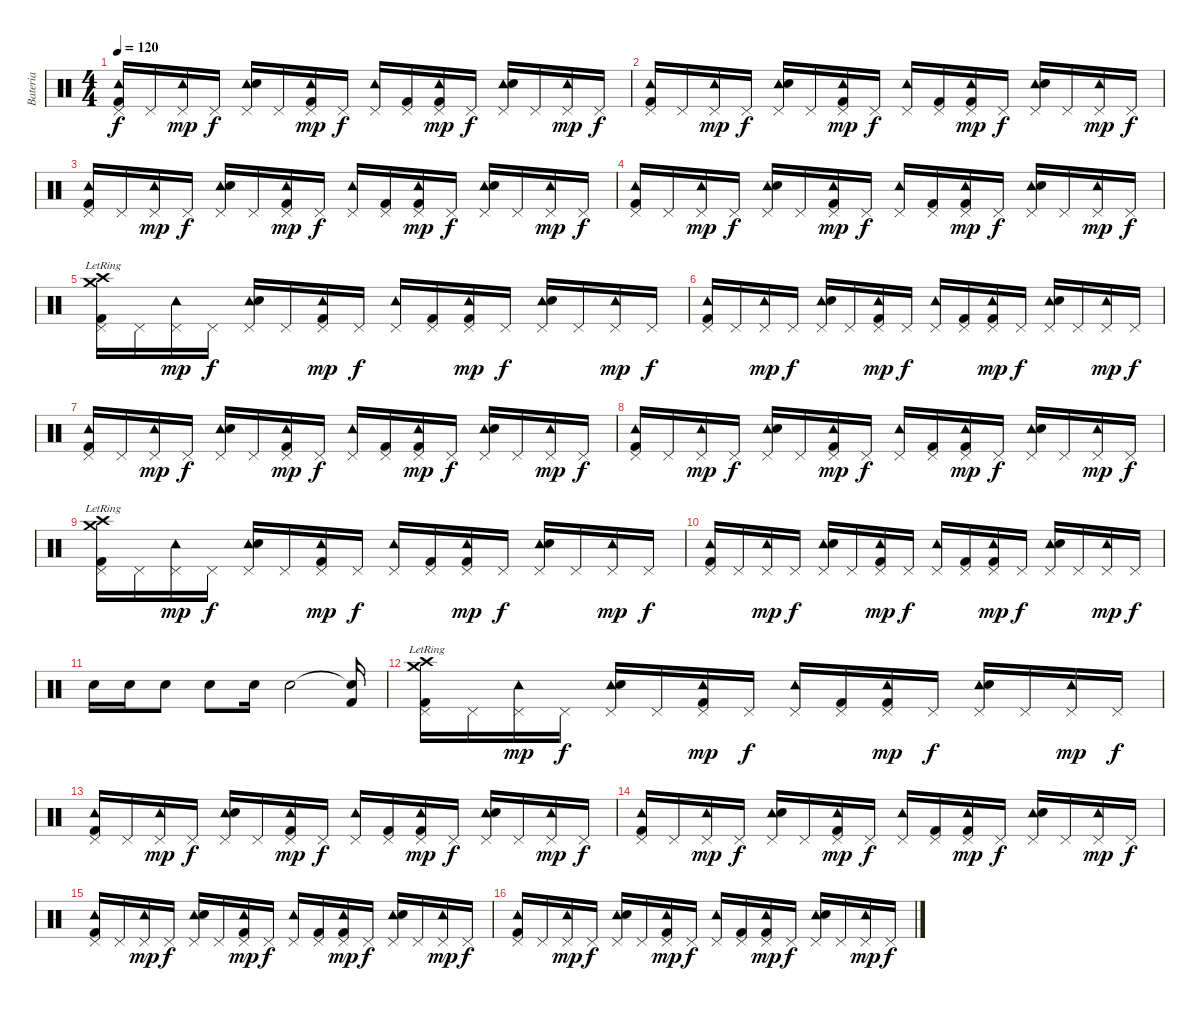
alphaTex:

\track ("Bateria" "Bateria") {instrument percussion}
\staff {score}
\articulation defaults
\ts (4 4)
\tempo 120
\clef neutral
\ks c
("Tambourine (hit)" "Pedal Hi-Hat (hit)" "Kick (hit) 2").16{dy f} "Pedal Hi-Hat (hit)".16 ("Tambourine (hit)" "Pedal Hi-Hat (hit)").16{dy mp} "Pedal Hi-Hat (hit)".16{dy f} ("Tambourine (hit)" "Pedal Hi-Hat (hit)" "Electric Snare (hit)").16 "Pedal Hi-Hat (hit)".16 ("Tambourine (hit)" "Pedal Hi-Hat (hit)" "Kick (hit) 2").16{dy mp} "Pedal Hi-Hat (hit)".16{dy f} ("Tambourine (hit)" "Pedal Hi-Hat (hit)").16 ("Pedal Hi-Hat (hit)" "Kick (hit) 2").16 ("Tambourine (hit)" "Pedal Hi-Hat (hit)" "Kick (hit) 2").16{dy mp} "Pedal Hi-Hat (hit)".16{dy f} ("Tambourine (hit)" "Pedal Hi-Hat (hit)" "Electric Snare (hit)").16 "Pedal Hi-Hat (hit)".16 ("Tambourine (hit)" "Pedal Hi-Hat (hit)").16{dy mp} "Pedal Hi-Hat (hit)".16{dy f} |
("Tambourine (hit)" "Pedal Hi-Hat (hit)" "Kick (hit) 2").16 "Pedal Hi-Hat (hit)".16 ("Tambourine (hit)" "Pedal Hi-Hat (hit)").16{dy mp} "Pedal Hi-Hat (hit)".16{dy f} ("Tambourine (hit)" "Pedal Hi-Hat (hit)" "Electric Snare (hit)").16 "Pedal Hi-Hat (hit)".16 ("Tambourine (hit)" "Pedal Hi-Hat (hit)" "Kick (hit) 2").16{dy mp} "Pedal Hi-Hat (hit)".16{dy f} ("Tambourine (hit)" "Pedal Hi-Hat (hit)").16 ("Pedal Hi-Hat (hit)" "Kick (hit) 2").16 ("Tambourine (hit)" "Pedal Hi-Hat (hit)" "Kick (hit) 2").16{dy mp} "Pedal Hi-Hat (hit)".16{dy f} ("Tambourine (hit)" "Pedal Hi-Hat (hit)" "Electric Snare (hit)").16 "Pedal Hi-Hat (hit)".16 ("Tambourine (hit)" "Pedal Hi-Hat (hit)").16{dy mp} "Pedal Hi-Hat (hit)".16{dy f} |
("Tambourine (hit)" "Pedal Hi-Hat (hit)" "Kick (hit) 2").16 "Pedal Hi-Hat (hit)".16 ("Tambourine (hit)" "Pedal Hi-Hat (hit)").16{dy mp} "Pedal Hi-Hat (hit)".16{dy f} ("Tambourine (hit)" "Pedal Hi-Hat (hit)" "Electric Snare (hit)").16 "Pedal Hi-Hat (hit)".16 ("Tambourine (hit)" "Pedal Hi-Hat (hit)" "Kick (hit) 2").16{dy mp} "Pedal Hi-Hat (hit)".16{dy f} ("Tambourine (hit)" "Pedal Hi-Hat (hit)").16 ("Pedal Hi-Hat (hit)" "Kick (hit) 2").16 ("Tambourine (hit)" "Pedal Hi-Hat (hit)" "Kick (hit) 2").16{dy mp} "Pedal Hi-Hat (hit)".16{dy f} ("Tambourine (hit)" "Pedal Hi-Hat (hit)" "Electric Snare (hit)").16 "Pedal Hi-Hat (hit)".16 ("Tambourine (hit)" "Pedal Hi-Hat (hit)").16{dy mp} "Pedal Hi-Hat (hit)".16{dy f} |
("Tambourine (hit)" "Pedal Hi-Hat (hit)" "Kick (hit) 2").16 "Pedal Hi-Hat (hit)".16 ("Tambourine (hit)" "Pedal Hi-Hat (hit)").16{dy mp} "Pedal Hi-Hat (hit)".16{dy f} ("Tambourine (hit)" "Pedal Hi-Hat (hit)" "Electric Snare (hit)").16 "Pedal Hi-Hat (hit)".16 ("Tambourine (hit)" "Pedal Hi-Hat (hit)" "Kick (hit) 2").16{dy mp} "Pedal Hi-Hat (hit)".16{dy f} ("Tambourine (hit)" "Pedal Hi-Hat (hit)").16 ("Pedal Hi-Hat (hit)" "Kick (hit) 2").16 ("Tambourine (hit)" "Pedal Hi-Hat (hit)" "Kick (hit) 2").16{dy mp} "Pedal Hi-Hat (hit)".16{dy f} ("Tambourine (hit)" "Pedal Hi-Hat (hit)" "Electric Snare (hit)").16 "Pedal Hi-Hat (hit)".16 ("Tambourine (hit)" "Pedal Hi-Hat (hit)").16{dy mp} "Pedal Hi-Hat (hit)".16{dy f} |
("Crash medium (hit)"{lr} "Crash high (hit)"{lr} "Pedal Hi-Hat (hit)" "Kick (hit) 2").16 "Pedal Hi-Hat (hit)".16 ("Tambourine (hit)" "Pedal Hi-Hat (hit)").16{dy mp} "Pedal Hi-Hat (hit)".16{dy f} ("Tambourine (hit)" "Pedal Hi-Hat (hit)" "Electric Snare (hit)").16 "Pedal Hi-Hat (hit)".16 ("Tambourine (hit)" "Pedal Hi-Hat (hit)" "Kick (hit) 2").16{dy mp} "Pedal Hi-Hat (hit)".16{dy f} ("Tambourine (hit)" "Pedal Hi-Hat (hit)").16 ("Pedal Hi-Hat (hit)" "Kick (hit) 2").16 ("Tambourine (hit)" "Pedal Hi-Hat (hit)" "Kick (hit) 2").16{dy mp} "Pedal Hi-Hat (hit)".16{dy f} ("Tambourine (hit)" "Pedal Hi-Hat (hit)" "Electric Snare (hit)").16 "Pedal Hi-Hat (hit)".16 ("Tambourine (hit)" "Pedal Hi-Hat (hit)").16{dy mp} "Pedal Hi-Hat (hit)".16{dy f} |
("Tambourine (hit)" "Pedal Hi-Hat (hit)" "Kick (hit) 2").16 "Pedal Hi-Hat (hit)".16 ("Tambourine (hit)" "Pedal Hi-Hat (hit)").16{dy mp} "Pedal Hi-Hat (hit)".16{dy f} ("Tambourine (hit)" "Pedal Hi-Hat (hit)" "Electric Snare (hit)").16 "Pedal Hi-Hat (hit)".16 ("Tambourine (hit)" "Pedal Hi-Hat (hit)" "Kick (hit) 2").16{dy mp} "Pedal Hi-Hat (hit)".16{dy f} ("Tambourine (hit)" "Pedal Hi-Hat (hit)").16 ("Pedal Hi-Hat (hit)" "Kick (hit) 2").16 ("Tambourine (hit)" "Pedal Hi-Hat (hit)" "Kick (hit) 2").16{dy mp} "Pedal Hi-Hat (hit)".16{dy f} ("Tambourine (hit)" "Pedal Hi-Hat (hit)" "Electric Snare (hit)").16 "Pedal Hi-Hat (hit)".16 ("Tambourine (hit)" "Pedal Hi-Hat (hit)").16{dy mp} "Pedal Hi-Hat (hit)".16{dy f} |
("Tambourine (hit)" "Pedal Hi-Hat (hit)" "Kick (hit) 2").16 "Pedal Hi-Hat (hit)".16 ("Tambourine (hit)" "Pedal Hi-Hat (hit)").16{dy mp} "Pedal Hi-Hat (hit)".16{dy f} ("Tambourine (hit)" "Pedal Hi-Hat (hit)" "Electric Snare (hit)").16 "Pedal Hi-Hat (hit)".16 ("Tambourine (hit)" "Pedal Hi-Hat (hit)" "Kick (hit) 2").16{dy mp} "Pedal Hi-Hat (hit)".16{dy f} ("Tambourine (hit)" "Pedal Hi-Hat (hit)").16 ("Pedal Hi-Hat (hit)" "Kick (hit) 2").16 ("Tambourine (hit)" "Pedal Hi-Hat (hit)" "Kick (hit) 2").16{dy mp} "Pedal Hi-Hat (hit)".16{dy f} ("Tambourine (hit)" "Pedal Hi-Hat (hit)" "Electric Snare (hit)").16 "Pedal Hi-Hat (hit)".16 ("Tambourine (hit)" "Pedal Hi-Hat (hit)").16{dy mp} "Pedal Hi-Hat (hit)".16{dy f} |
("Tambourine (hit)" "Pedal Hi-Hat (hit)" "Kick (hit) 2").16 "Pedal Hi-Hat (hit)".16 ("Tambourine (hit)" "Pedal Hi-Hat (hit)").16{dy mp} "Pedal Hi-Hat (hit)".16{dy f} ("Tambourine (hit)" "Pedal Hi-Hat (hit)" "Electric Snare (hit)").16 "Pedal Hi-Hat (hit)".16 ("Tambourine (hit)" "Pedal Hi-Hat (hit)" "Kick (hit) 2").16{dy mp} "Pedal Hi-Hat (hit)".16{dy f} ("Tambourine (hit)" "Pedal Hi-Hat (hit)").16 ("Pedal Hi-Hat (hit)" "Kick (hit) 2").16 ("Tambourine (hit)" "Pedal Hi-Hat (hit)" "Kick (hit) 2").16{dy mp} "Pedal Hi-Hat (hit)".16{dy f} ("Tambourine (hit)" "Pedal Hi-Hat (hit)" "Electric Snare (hit)").16 "Pedal Hi-Hat (hit)".16 ("Tambourine (hit)" "Pedal Hi-Hat (hit)").16{dy mp} "Pedal Hi-Hat (hit)".16{dy f} |
("Crash medium (hit)"{lr} "Crash high (hit)"{lr} "Pedal Hi-Hat (hit)" "Kick (hit) 2").16 "Pedal Hi-Hat (hit)".16 ("Tambourine (hit)" "Pedal Hi-Hat (hit)").16{dy mp} "Pedal Hi-Hat (hit)".16{dy f} ("Tambourine (hit)" "Pedal Hi-Hat (hit)" "Electric Snare (hit)").16 "Pedal Hi-Hat (hit)".16 ("Tambourine (hit)" "Pedal Hi-Hat (hit)" "Kick (hit) 2").16{dy mp} "Pedal Hi-Hat (hit)".16{dy f} ("Tambourine (hit)" "Pedal Hi-Hat (hit)").16 ("Pedal Hi-Hat (hit)" "Kick (hit) 2").16 ("Tambourine (hit)" "Pedal Hi-Hat (hit)" "Kick (hit) 2").16{dy mp} "Pedal Hi-Hat (hit)".16{dy f} ("Tambourine (hit)" "Pedal Hi-Hat (hit)" "Electric Snare (hit)").16 "Pedal Hi-Hat (hit)".16 ("Tambourine (hit)" "Pedal Hi-Hat (hit)").16{dy mp} "Pedal Hi-Hat (hit)".16{dy f} |
("Tambourine (hit)" "Pedal Hi-Hat (hit)" "Kick (hit) 2").16 "Pedal Hi-Hat (hit)".16 ("Tambourine (hit)" "Pedal Hi-Hat (hit)").16{dy mp} "Pedal Hi-Hat (hit)".16{dy f} ("Tambourine (hit)" "Pedal Hi-Hat (hit)" "Electric Snare (hit)").16 "Pedal Hi-Hat (hit)".16 ("Tambourine (hit)" "Pedal Hi-Hat (hit)" "Kick (hit) 2").16{dy mp} "Pedal Hi-Hat (hit)".16{dy f} ("Tambourine (hit)" "Pedal Hi-Hat (hit)").16 ("Pedal Hi-Hat (hit)" "Kick (hit) 2").16 ("Tambourine (hit)" "Pedal Hi-Hat (hit)" "Kick (hit) 2").16{dy mp} "Pedal Hi-Hat (hit)".16{dy f} ("Tambourine (hit)" "Pedal Hi-Hat (hit)" "Electric Snare (hit)").16 "Pedal Hi-Hat (hit)".16 ("Tambourine (hit)" "Pedal Hi-Hat (hit)").16{dy mp} "Pedal Hi-Hat (hit)".16{dy f} |
"Electric Snare (hit)".16 "Electric Snare (hit)".16 "Electric Snare (hit)".8 "Electric Snare (hit)".8 "Electric Snare (hit)".16 "Electric Snare (hit)".2 ("Snare (hit)"{t} "Kick (hit) 2").16 |
("Crash medium (hit)"{lr} "Crash high (hit)"{lr} "Pedal Hi-Hat (hit)" "Kick (hit) 2").16 "Pedal Hi-Hat (hit)".16 ("Tambourine (hit)" "Pedal Hi-Hat (hit)").16{dy mp} "Pedal Hi-Hat (hit)".16{dy f} ("Tambourine (hit)" "Pedal Hi-Hat (hit)" "Electric Snare (hit)").16 "Pedal Hi-Hat (hit)".16 ("Tambourine (hit)" "Pedal Hi-Hat (hit)" "Kick (hit) 2").16{dy mp} "Pedal Hi-Hat (hit)".16{dy f} ("Tambourine (hit)" "Pedal Hi-Hat (hit)").16 ("Pedal Hi-Hat (hit)" "Kick (hit) 2").16 ("Tambourine (hit)" "Pedal Hi-Hat (hit)" "Kick (hit) 2").16{dy mp} "Pedal Hi-Hat (hit)".16{dy f} ("Tambourine (hit)" "Pedal Hi-Hat (hit)" "Electric Snare (hit)").16 "Pedal Hi-Hat (hit)".16 ("Tambourine (hit)" "Pedal Hi-Hat (hit)").16{dy mp} "Pedal Hi-Hat (hit)".16{dy f} |
("Tambourine (hit)" "Pedal Hi-Hat (hit)" "Kick (hit) 2").16 "Pedal Hi-Hat (hit)".16 ("Tambourine (hit)" "Pedal Hi-Hat (hit)").16{dy mp} "Pedal Hi-Hat (hit)".16{dy f} ("Tambourine (hit)" "Pedal Hi-Hat (hit)" "Electric Snare (hit)").16 "Pedal Hi-Hat (hit)".16 ("Tambourine (hit)" "Pedal Hi-Hat (hit)" "Kick (hit) 2").16{dy mp} "Pedal Hi-Hat (hit)".16{dy f} ("Tambourine (hit)" "Pedal Hi-Hat (hit)").16 ("Pedal Hi-Hat (hit)" "Kick (hit) 2").16 ("Tambourine (hit)" "Pedal Hi-Hat (hit)" "Kick (hit) 2").16{dy mp} "Pedal Hi-Hat (hit)".16{dy f} ("Tambourine (hit)" "Pedal Hi-Hat (hit)" "Electric Snare (hit)").16 "Pedal Hi-Hat (hit)".16 ("Tambourine (hit)" "Pedal Hi-Hat (hit)").16{dy mp} "Pedal Hi-Hat (hit)".16{dy f} |
("Tambourine (hit)" "Pedal Hi-Hat (hit)" "Kick (hit) 2").16 "Pedal Hi-Hat (hit)".16 ("Tambourine (hit)" "Pedal Hi-Hat (hit)").16{dy mp} "Pedal Hi-Hat (hit)".16{dy f} ("Tambourine (hit)" "Pedal Hi-Hat (hit)" "Electric Snare (hit)").16 "Pedal Hi-Hat (hit)".16 ("Tambourine (hit)" "Pedal Hi-Hat (hit)" "Kick (hit) 2").16{dy mp} "Pedal Hi-Hat (hit)".16{dy f} ("Tambourine (hit)" "Pedal Hi-Hat (hit)").16 ("Pedal Hi-Hat (hit)" "Kick (hit) 2").16 ("Tambourine (hit)" "Pedal Hi-Hat (hit)" "Kick (hit) 2").16{dy mp} "Pedal Hi-Hat (hit)".16{dy f} ("Tambourine (hit)" "Pedal Hi-Hat (hit)" "Electric Snare (hit)").16 "Pedal Hi-Hat (hit)".16 ("Tambourine (hit)" "Pedal Hi-Hat (hit)").16{dy mp} "Pedal Hi-Hat (hit)".16{dy f} |
("Tambourine (hit)" "Pedal Hi-Hat (hit)" "Kick (hit) 2").16 "Pedal Hi-Hat (hit)".16 ("Tambourine (hit)" "Pedal Hi-Hat (hit)").16{dy mp} "Pedal Hi-Hat (hit)".16{dy f} ("Tambourine (hit)" "Pedal Hi-Hat (hit)" "Electric Snare (hit)").16 "Pedal Hi-Hat (hit)".16 ("Tambourine (hit)" "Pedal Hi-Hat (hit)" "Kick (hit) 2").16{dy mp} "Pedal Hi-Hat (hit)".16{dy f} ("Tambourine (hit)" "Pedal Hi-Hat (hit)").16 ("Pedal Hi-Hat (hit)" "Kick (hit) 2").16 ("Tambourine (hit)" "Pedal Hi-Hat (hit)" "Kick (hit) 2").16{dy mp} "Pedal Hi-Hat (hit)".16{dy f} ("Tambourine (hit)" "Pedal Hi-Hat (hit)" "Electric Snare (hit)").16 "Pedal Hi-Hat (hit)".16 ("Tambourine (hit)" "Pedal Hi-Hat (hit)").16{dy mp} "Pedal Hi-Hat (hit)".16{dy f} |
("Tambourine (hit)" "Pedal Hi-Hat (hit)" "Kick (hit) 2").16 "Pedal Hi-Hat (hit)".16 ("Tambourine (hit)" "Pedal Hi-Hat (hit)").16{dy mp} "Pedal Hi-Hat (hit)".16{dy f} ("Tambourine (hit)" "Pedal Hi-Hat (hit)" "Electric Snare (hit)").16 "Pedal Hi-Hat (hit)".16 ("Tambourine (hit)" "Pedal Hi-Hat (hit)" "Kick (hit) 2").16{dy mp} "Pedal Hi-Hat (hit)".16{dy f} ("Tambourine (hit)" "Pedal Hi-Hat (hit)").16 ("Pedal Hi-Hat (hit)" "Kick (hit) 2").16 ("Tambourine (hit)" "Pedal Hi-Hat (hit)" "Kick (hit) 2").16{dy mp} "Pedal Hi-Hat (hit)".16{dy f} ("Tambourine (hit)" "Pedal Hi-Hat (hit)" "Electric Snare (hit)").16 "Pedal Hi-Hat (hit)".16 ("Tambourine (hit)" "Pedal Hi-Hat (hit)").16{dy mp} "Pedal Hi-Hat (hit)".16{dy f}
